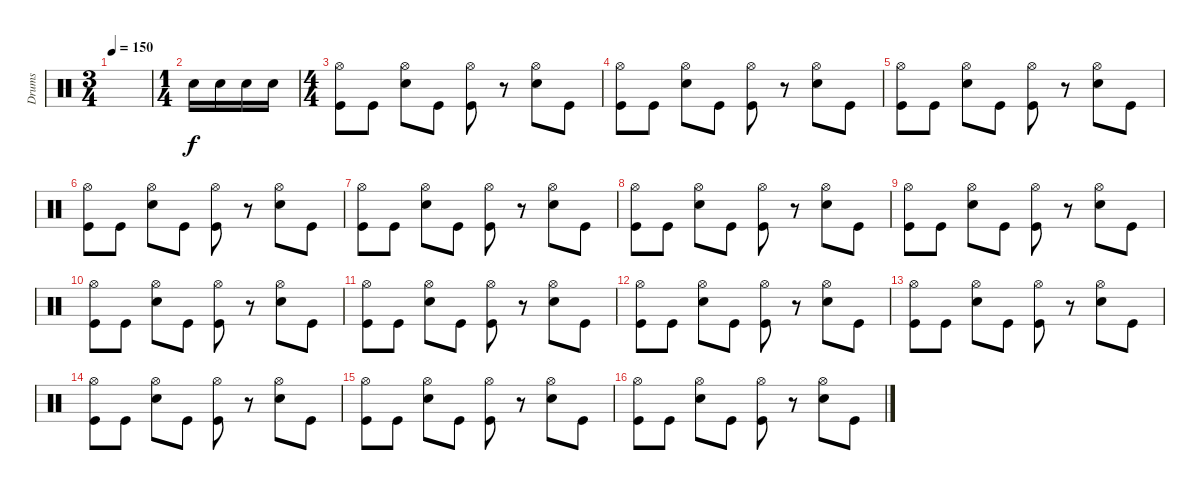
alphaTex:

\track ("Drums" "Drums") {instrument percussion}
\staff {score}
\articulation defaults
\ts (3 4)
\tempo 150
\clef neutral
\ks c
|
\ts (1 4)
"Snare (hit) 2".16 "Snare (hit) 2".16 "Snare (hit) 2".16 "Snare (hit) 2".16 |
\ts (4 4)
("Hi-Hat (open)" "Kick (hit)").8 "Kick (hit)".8 ("Hi-Hat (open)" "Snare (hit) 2").8 "Kick (hit)".8 ("Hi-Hat (open)" "Kick (hit)").8 r.8 ("Hi-Hat (open)" "Snare (hit) 2").8 "Kick (hit)".8 |
("Hi-Hat (open)" "Kick (hit)").8 "Kick (hit)".8 ("Hi-Hat (open)" "Snare (hit) 2").8 "Kick (hit)".8 ("Hi-Hat (open)" "Kick (hit)").8 r.8 ("Hi-Hat (open)" "Snare (hit) 2").8 "Kick (hit)".8 |
("Hi-Hat (open)" "Kick (hit)").8 "Kick (hit)".8 ("Hi-Hat (open)" "Snare (hit) 2").8 "Kick (hit)".8 ("Hi-Hat (open)" "Kick (hit)").8 r.8 ("Hi-Hat (open)" "Snare (hit) 2").8 "Kick (hit)".8 |
("Hi-Hat (open)" "Kick (hit)").8 "Kick (hit)".8 ("Hi-Hat (open)" "Snare (hit) 2").8 "Kick (hit)".8 ("Hi-Hat (open)" "Kick (hit)").8 r.8 ("Hi-Hat (open)" "Snare (hit) 2").8 "Kick (hit)".8 |
("Hi-Hat (open)" "Kick (hit)").8 "Kick (hit)".8 ("Hi-Hat (open)" "Snare (hit) 2").8 "Kick (hit)".8 ("Hi-Hat (open)" "Kick (hit)").8 r.8 ("Hi-Hat (open)" "Snare (hit) 2").8 "Kick (hit)".8 |
("Hi-Hat (open)" "Kick (hit)").8 "Kick (hit)".8 ("Hi-Hat (open)" "Snare (hit) 2").8 "Kick (hit)".8 ("Hi-Hat (open)" "Kick (hit)").8 r.8 ("Hi-Hat (open)" "Snare (hit) 2").8 "Kick (hit)".8 |
("Hi-Hat (open)" "Kick (hit)").8 "Kick (hit)".8 ("Hi-Hat (open)" "Snare (hit) 2").8 "Kick (hit)".8 ("Hi-Hat (open)" "Kick (hit)").8 r.8 ("Hi-Hat (open)" "Snare (hit) 2").8 "Kick (hit)".8 |
("Hi-Hat (open)" "Kick (hit)").8 "Kick (hit)".8 ("Hi-Hat (open)" "Snare (hit) 2").8 "Kick (hit)".8 ("Hi-Hat (open)" "Kick (hit)").8 r.8 ("Hi-Hat (open)" "Snare (hit) 2").8 "Kick (hit)".8 |
("Hi-Hat (open)" "Kick (hit)").8 "Kick (hit)".8 ("Hi-Hat (open)" "Snare (hit) 2").8 "Kick (hit)".8 ("Hi-Hat (open)" "Kick (hit)").8 r.8 ("Hi-Hat (open)" "Snare (hit) 2").8 "Kick (hit)".8 |
("Hi-Hat (open)" "Kick (hit)").8 "Kick (hit)".8 ("Hi-Hat (open)" "Snare (hit) 2").8 "Kick (hit)".8 ("Hi-Hat (open)" "Kick (hit)").8 r.8 ("Hi-Hat (open)" "Snare (hit) 2").8 "Kick (hit)".8 |
("Hi-Hat (open)" "Kick (hit)").8 "Kick (hit)".8 ("Hi-Hat (open)" "Snare (hit) 2").8 "Kick (hit)".8 ("Hi-Hat (open)" "Kick (hit)").8 r.8 ("Hi-Hat (open)" "Snare (hit) 2").8 "Kick (hit)".8 |
("Hi-Hat (open)" "Kick (hit)").8 "Kick (hit)".8 ("Hi-Hat (open)" "Snare (hit) 2").8 "Kick (hit)".8 ("Hi-Hat (open)" "Kick (hit)").8 r.8 ("Hi-Hat (open)" "Snare (hit) 2").8 "Kick (hit)".8 |
("Hi-Hat (open)" "Kick (hit)").8 "Kick (hit)".8 ("Hi-Hat (open)" "Snare (hit) 2").8 "Kick (hit)".8 ("Hi-Hat (open)" "Kick (hit)").8 r.8 ("Hi-Hat (open)" "Snare (hit) 2").8 "Kick (hit)".8 |
("Hi-Hat (open)" "Kick (hit)").8 "Kick (hit)".8 ("Hi-Hat (open)" "Snare (hit) 2").8 "Kick (hit)".8 ("Hi-Hat (open)" "Kick (hit)").8 r.8 ("Hi-Hat (open)" "Snare (hit) 2").8 "Kick (hit)".8
